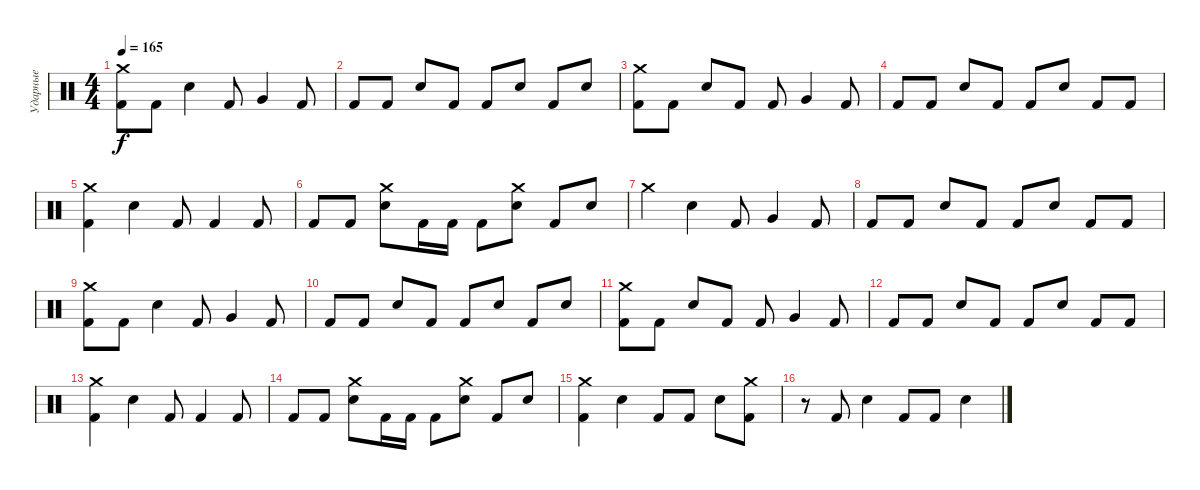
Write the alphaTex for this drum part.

\track ("Ударные" "Ударные") {instrument percussion}
\staff {score}
\articulation defaults
\ts (4 4)
\tempo 165
\clef neutral
\ks c
("Crash medium (hit)" "Kick (hit) 2").8{dy f} "Kick (hit) 2".8 "Snare (hit) 2".4 "Kick (hit) 2".8 "Very Low Tom (hit)".4 "Kick (hit) 2".8 |
"Kick (hit) 2".8 "Kick (hit) 2".8 "Snare (hit) 2".8 "Kick (hit) 2".8 "Kick (hit) 2".8 "Snare (hit) 2".8 "Kick (hit) 2".8 "Snare (hit) 2".8 |
("Crash medium (hit)" "Kick (hit) 2").8 "Kick (hit) 2".8 "Snare (hit) 2".8 "Kick (hit) 2".8 "Kick (hit) 2".8 "Very Low Tom (hit)".4 "Kick (hit) 2".8 |
"Kick (hit) 2".8 "Kick (hit) 2".8 "Snare (hit) 2".8 "Kick (hit) 2".8 "Kick (hit) 2".8 "Snare (hit) 2".8 "Kick (hit) 2".8 "Kick (hit) 2".8 |
("Crash medium (hit)" "Kick (hit) 2").4 "Snare (hit) 2".4 "Kick (hit) 2".8 "Kick (hit) 2".4 "Kick (hit) 2".8 |
"Kick (hit) 2".8 "Kick (hit) 2".8 ("Crash medium (hit)" "Snare (hit) 2").8 "Kick (hit) 2".16 "Kick (hit) 2".16 "Kick (hit) 2".8 ("Crash medium (hit)" "Snare (hit) 2").8 "Kick (hit) 2".8 "Snare (hit) 2".8 |
"Crash medium (hit)".4 "Snare (hit) 2".4 "Kick (hit) 2".8 "Very Low Tom (hit)".4 "Kick (hit) 2".8 |
"Kick (hit) 2".8 "Kick (hit) 2".8 "Snare (hit) 2".8 "Kick (hit) 2".8 "Kick (hit) 2".8 "Snare (hit) 2".8 "Kick (hit) 2".8 "Kick (hit) 2".8 |
("Crash medium (hit)" "Kick (hit) 2").8 "Kick (hit) 2".8 "Snare (hit) 2".4 "Kick (hit) 2".8 "Very Low Tom (hit)".4 "Kick (hit) 2".8 |
"Kick (hit) 2".8 "Kick (hit) 2".8 "Snare (hit) 2".8 "Kick (hit) 2".8 "Kick (hit) 2".8 "Snare (hit) 2".8 "Kick (hit) 2".8 "Snare (hit) 2".8 |
("Crash medium (hit)" "Kick (hit) 2").8 "Kick (hit) 2".8 "Snare (hit) 2".8 "Kick (hit) 2".8 "Kick (hit) 2".8 "Very Low Tom (hit)".4 "Kick (hit) 2".8 |
"Kick (hit) 2".8 "Kick (hit) 2".8 "Snare (hit) 2".8 "Kick (hit) 2".8 "Kick (hit) 2".8 "Snare (hit) 2".8 "Kick (hit) 2".8 "Kick (hit) 2".8 |
("Crash medium (hit)" "Kick (hit) 2").4 "Snare (hit) 2".4 "Kick (hit) 2".8 "Kick (hit) 2".4 "Kick (hit) 2".8 |
"Kick (hit) 2".8 "Kick (hit) 2".8 ("Crash medium (hit)" "Snare (hit) 2").8 "Kick (hit) 2".16 "Kick (hit) 2".16 "Kick (hit) 2".8 ("Crash medium (hit)" "Snare (hit) 2").8 "Kick (hit) 2".8 "Snare (hit) 2".8 |
("Crash medium (hit)" "Kick (hit) 2").4 "Snare (hit) 2".4 "Kick (hit) 2".8 "Kick (hit) 2".8 "Snare (hit) 2".8 ("Crash medium (hit)" "Kick (hit) 2").8 |
r.8 "Kick (hit) 2".8 "Snare (hit) 2".4 "Kick (hit) 2".8 "Kick (hit) 2".8 "Snare (hit) 2".4
